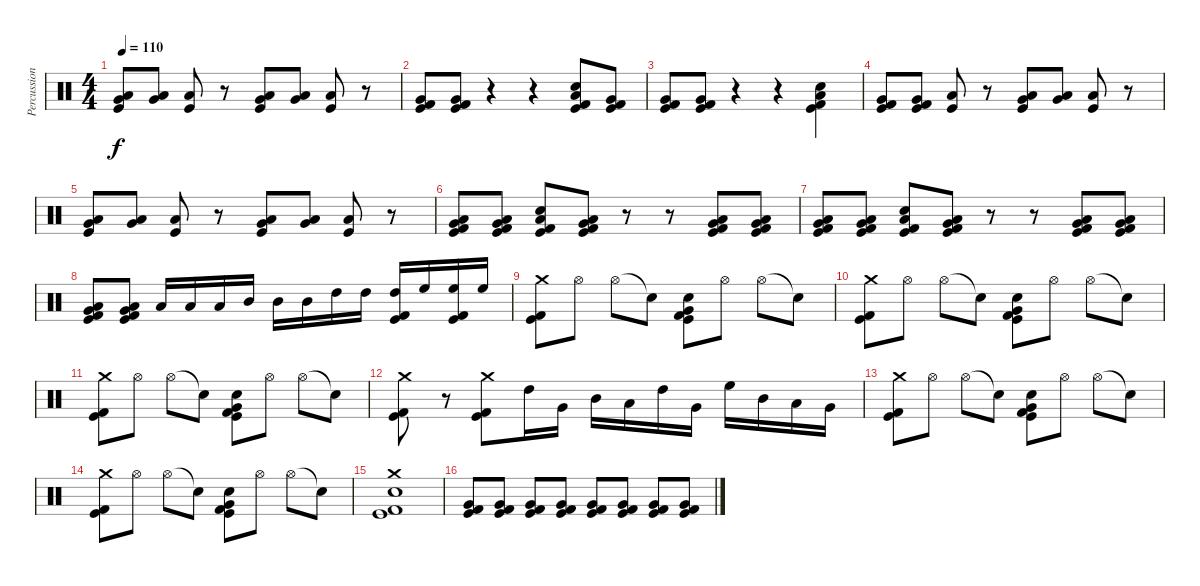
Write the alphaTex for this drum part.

\track ("Percussion" "Percussion") {instrument percussion}
\staff {score}
\articulation defaults
\ts (4 4)
\tempo 110
\clef neutral
\ks c
("Low Tom (hit)" "Very Low Tom (hit)" "Kick (hit)").8{dy f} ("Low Tom (hit)" "Very Low Tom (hit)").8 ("Low Floor Tom (hit)" "Kick (hit)").8 r.8 ("Low Tom (hit)" "Very Low Tom (hit)" "Kick (hit)").8 ("Low Tom (hit)" "Very Low Tom (hit)").8 ("Low Floor Tom (hit)" "Kick (hit)").8 r.8 |
("Very Low Tom (hit)" "Kick (hit) 2" "Kick (hit)").8 ("Very Low Tom (hit)" "Kick (hit) 2" "Kick (hit)").8 r.4 r.4 ("Electric Snare (hit)" "Low Tom (hit)" "Kick (hit) 2" "Kick (hit)").8 ("Very Low Tom (hit)" "Kick (hit) 2" "Kick (hit)").8 |
("Very Low Tom (hit)" "Kick (hit) 2" "Kick (hit)").8 ("Very Low Tom (hit)" "Kick (hit) 2" "Kick (hit)").8 r.4 r.4 ("Electric Snare (hit)" "Low Tom (hit)" "Kick (hit) 2" "Kick (hit)").4 |
("Very Low Tom (hit)" "Kick (hit) 2" "Kick (hit)").8 ("Very Low Tom (hit)" "Kick (hit) 2" "Kick (hit)").8 ("Low Floor Tom (hit)" "Kick (hit)").8 r.8 ("Low Tom (hit)" "Very Low Tom (hit)" "Kick (hit)").8 ("Low Tom (hit)" "Very Low Tom (hit)").8 ("Low Floor Tom (hit)" "Kick (hit)").8 r.8 |
("Low Tom (hit)" "Very Low Tom (hit)" "Kick (hit)").8 ("Low Tom (hit)" "Very Low Tom (hit)").8 ("Low Floor Tom (hit)" "Kick (hit)").8 r.8 ("Low Tom (hit)" "Very Low Tom (hit)" "Kick (hit)").8 ("Low Tom (hit)" "Very Low Tom (hit)").8 ("Low Floor Tom (hit)" "Kick (hit)").8 r.8 |
("Low Tom (hit)" "Very Low Tom (hit)" "Kick (hit) 2" "Kick (hit)").8 ("Low Tom (hit)" "Very Low Tom (hit)" "Kick (hit) 2" "Kick (hit)").8 ("Snare (hit) 2" "Low Tom (hit)" "Kick (hit) 2" "Kick (hit)").8 ("Low Tom (hit)" "Very Low Tom (hit)" "Kick (hit) 2" "Kick (hit)").8 r.8 r.8 ("Low Tom (hit)" "Very Low Tom (hit)" "Kick (hit) 2" "Kick (hit)").8 ("Low Tom (hit)" "Very Low Tom (hit)" "Kick (hit) 2" "Kick (hit)").8 |
("Low Tom (hit)" "Very Low Tom (hit)" "Kick (hit) 2" "Kick (hit)").8 ("Low Tom (hit)" "Very Low Tom (hit)" "Kick (hit) 2" "Kick (hit)").8 ("Snare (hit) 2" "Low Tom (hit)" "Kick (hit) 2" "Kick (hit)").8 ("Low Tom (hit)" "Very Low Tom (hit)" "Kick (hit) 2" "Kick (hit)").8 r.8 r.8 ("Low Tom (hit)" "Very Low Tom (hit)" "Kick (hit) 2" "Kick (hit)").8 ("Low Tom (hit)" "Very Low Tom (hit)" "Kick (hit) 2" "Kick (hit)").8 |
("Low Tom (hit)" "Very Low Tom (hit)" "Kick (hit) 2" "Kick (hit)").8 ("Low Tom (hit)" "Very Low Tom (hit)" "Kick (hit) 2" "Kick (hit)").8 "Low Tom (hit)".16 "Low Tom (hit)".16 "Low Tom (hit)".16 "Mid Tom (hit)".16 "Mid Tom (hit)".16 "Mid Tom (hit)".16 "High Tom (hit)".16 "High Tom (hit)".16 ("High Tom (hit)" "Kick (hit) 2" "Kick (hit)").16 "High Floor Tom (hit)".16 ("High Floor Tom (hit)" "Kick (hit) 2" "Kick (hit)").16 "High Floor Tom (hit)".16 |
("Crash medium (hit)" "Kick (hit) 2" "Kick (hit)").8 "Hi-Hat (open)".8 "Hi-Hat (open)".8 "Snare (hit)"{t}.8 ("Very Low Tom (hit)" "Snare (hit) 2" "Kick (hit) 2" "Kick (hit)").8 "Hi-Hat (open)".8 "Hi-Hat (open)".8 "Snare (hit)"{t}.8 |
("Crash medium (hit)" "Kick (hit) 2" "Kick (hit)").8 "Hi-Hat (open)".8 "Hi-Hat (open)".8 "Snare (hit)"{t}.8 ("Very Low Tom (hit)" "Snare (hit) 2" "Kick (hit) 2" "Kick (hit)").8 "Hi-Hat (open)".8 "Hi-Hat (open)".8 "Snare (hit)"{t}.8 |
("Crash medium (hit)" "Kick (hit) 2" "Kick (hit)").8 "Hi-Hat (open)".8 "Hi-Hat (open)".8 "Snare (hit)"{t}.8 ("Very Low Tom (hit)" "Snare (hit) 2" "Kick (hit) 2" "Kick (hit)").8 "Hi-Hat (open)".8 "Hi-Hat (open)".8 "Snare (hit)"{t}.8 |
("Crash medium (hit)" "Kick (hit) 2" "Kick (hit)").8 r.8 ("Crash medium (hit)" "Kick (hit) 2" "Kick (hit)").8 "High Tom (hit)".16 "Very Low Tom (hit)".16 "Mid Tom (hit)".16 "Low Tom (hit)".16 "High Tom (hit)".16 "Very Low Tom (hit)".16 "High Floor Tom (hit)".16 "Mid Tom (hit)".16 "Low Tom (hit)".16 "Very Low Tom (hit)".16 |
("Crash medium (hit)" "Kick (hit) 2" "Kick (hit)").8 "Hi-Hat (open)".8 "Hi-Hat (open)".8 "Snare (hit)"{t}.8 ("Very Low Tom (hit)" "Snare (hit) 2" "Kick (hit) 2" "Kick (hit)").8 "Hi-Hat (open)".8 "Hi-Hat (open)".8 "Snare (hit)"{t}.8 |
("Crash medium (hit)" "Kick (hit) 2" "Kick (hit)").8 "Hi-Hat (open)".8 "Hi-Hat (open)".8 "Snare (hit)"{t}.8 ("Very Low Tom (hit)" "Snare (hit) 2" "Kick (hit) 2" "Kick (hit)").8 "Hi-Hat (open)".8 "Hi-Hat (open)".8 "Snare (hit)"{t}.8 |
("Crash medium (hit)" "Snare (hit) 2" "Kick (hit) 2" "Kick (hit)").1 |
("Very Low Tom (hit)" "Kick (hit) 2" "Kick (hit)").8 ("Very Low Tom (hit)" "Kick (hit) 2" "Kick (hit)").8 ("Very Low Tom (hit)" "Kick (hit) 2" "Kick (hit)").8 ("Very Low Tom (hit)" "Kick (hit) 2" "Kick (hit)").8 ("Very Low Tom (hit)" "Kick (hit) 2" "Kick (hit)").8 ("Very Low Tom (hit)" "Kick (hit) 2" "Kick (hit)").8 ("Very Low Tom (hit)" "Kick (hit) 2" "Kick (hit)").8 ("Very Low Tom (hit)" "Kick (hit) 2" "Kick (hit)").8
